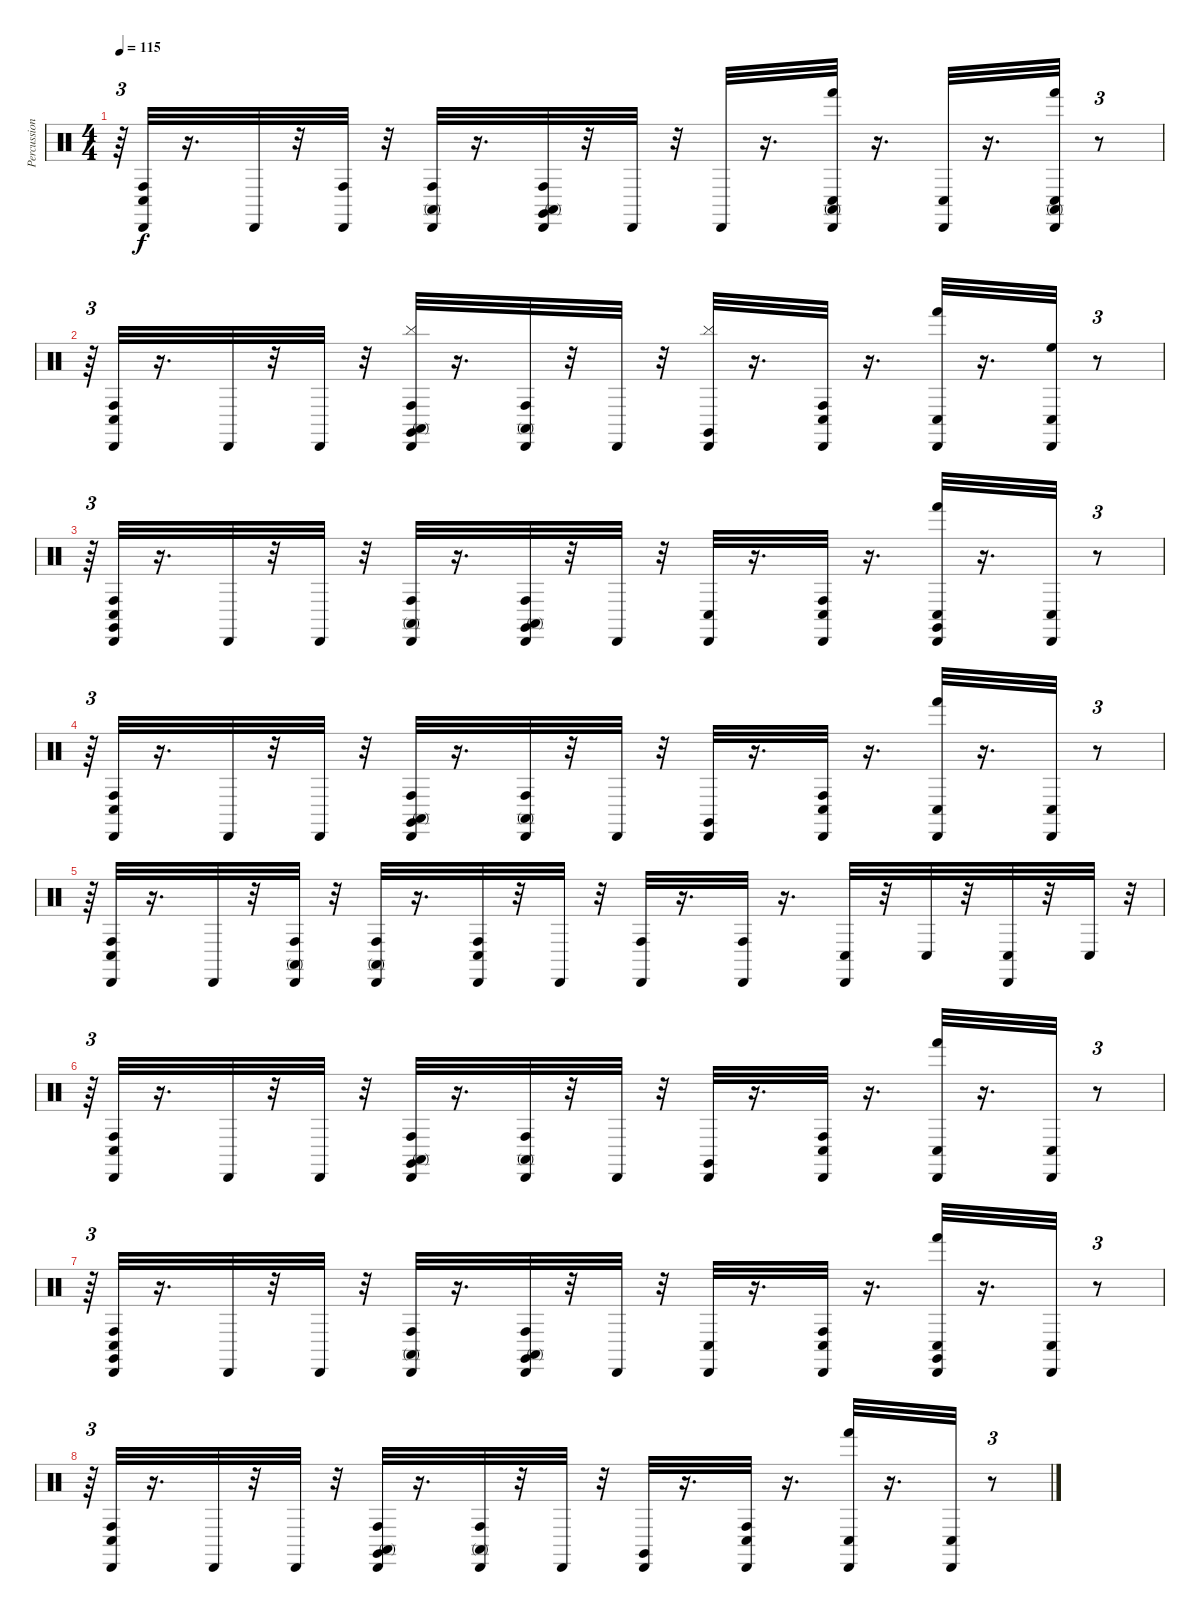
\track ("Percussion" "Percussion") {instrument percussion}
\staff {score}
\articulation defaults
\ts (4 4)
\tempo 115
\clef neutral
\ks c
r.64{tu (3 2) dy f} ("Cabasa (hit)" "Conga low (hit)" "Conga high (hit)").32 r.16{d} "Cabasa (hit)".32 r.32 ("Conga high (hit)" "Cabasa (hit)").32 r.32 ("Conga high (hit)" "Conga high (mute)" "Cabasa (hit)").32 r.16{d} ("Conga high (mute)" "Conga high (hit)" "Cabasa (hit)" "Claves (hit)").32 r.32 "Cabasa (hit)".32 r.32 "Cabasa (hit)".32 r.16{d} ("Conga high (mute)" "Cabasa (hit)" "Hand (hit)" "Conga low (hit)").32 r.16{d} ("Cabasa (hit)" "Conga low (hit)").32 r.16{d} ("Conga high (mute)" "Cabasa (hit)" "Hand (hit)" "Conga low (hit)").32 r.8{tu (3 2)} |
r.64{tu (3 2)} ("Conga low (hit)" "Conga high (hit)" "Cabasa (hit)").32 r.16{d} "Cabasa (hit)".32 r.32 "Cabasa (hit)".32 r.32 ("Conga high (hit)" "Conga high (mute)" "Claves (hit)" "Cymbal (hit)" "Cabasa (hit)").32 r.16{d} ("Cabasa (hit)" "Conga high (hit)" "Conga high (mute)").32 r.32 "Cabasa (hit)".32 r.32 ("Cymbal (hit)" "Cabasa (hit)" "Claves (hit)").32 r.16{d} ("Conga high (hit)" "Cabasa (hit)" "Conga low (hit)").32 r.16{d} ("Conga low (hit)" "Cabasa (hit)" "Hand (hit)").32 r.16{d} ("Cabasa (hit)" "Conga low (hit)" "High Floor Tom (hit)").32 r.8{tu (3 2)} |
r.64{tu (3 2)} ("Claves (hit)" "Conga low (hit)" "Cabasa (hit)" "Conga high (hit)").32 r.16{d} "Cabasa (hit)".32 r.32 "Cabasa (hit)".32 r.32 ("Conga high (hit)" "Cabasa (hit)" "Conga high (mute)").32 r.16{d} ("Conga high (hit)" "Cabasa (hit)" "Conga high (mute)" "Claves (hit)").32 r.32 "Cabasa (hit)".32 r.32 ("Cabasa (hit)" "Conga low (hit)").32 r.16{d} ("Conga low (hit)" "Cabasa (hit)" "Conga high (hit)").32 r.16{d} ("Hand (hit)" "Conga low (hit)" "Cabasa (hit)" "Claves (hit)").32 r.16{d} ("Cabasa (hit)" "Conga low (hit)").32 r.8{tu (3 2)} |
r.64{tu (3 2)} ("Cabasa (hit)" "Conga high (hit)" "Conga low (hit)").32 r.16{d} "Cabasa (hit)".32 r.32 "Cabasa (hit)".32 r.32 ("Cabasa (hit)" "Claves (hit)" "Conga high (mute)" "Conga high (hit)").32 r.16{d} ("Conga high (mute)" "Cabasa (hit)" "Conga high (hit)").32 r.32 "Cabasa (hit)".32 r.32 ("Cabasa (hit)" "Claves (hit)").32 r.16{d} ("Conga high (hit)" "Cabasa (hit)" "Conga low (hit)").32 r.16{d} ("Conga low (hit)" "Hand (hit)" "Cabasa (hit)").32 r.16{d} ("Conga low (hit)" "Cabasa (hit)").32 r.8{tu (3 2)} |
r.64{tu (3 2)} ("Conga low (hit)" "Conga high (hit)" "Cabasa (hit)").32 r.16{d} "Cabasa (hit)".32 r.32 ("Conga high (hit)" "Cabasa (hit)" "Conga high (mute)").32 r.32 ("Conga high (hit)" "Conga high (mute)" "Cabasa (hit)").32 r.16{d} ("Conga low (hit)" "Conga high (hit)" "Cabasa (hit)").32 r.32 "Cabasa (hit)".32 r.32 ("Cabasa (hit)" "Conga high (hit)").32 r.16{d} ("Conga high (hit)" "Cabasa (hit)").32 r.16{d} ("Conga low (hit)" "Cabasa (hit)").32 r.32 "Conga low (hit)".32 r.32 ("Cabasa (hit)" "Conga low (hit)").32 r.32 "Conga low (hit)".32 r.32{tu (3 2)} |
r.64{tu (3 2)} ("Conga high (hit)" "Conga low (hit)" "Cabasa (hit)").32 r.16{d} "Cabasa (hit)".32 r.32 "Cabasa (hit)".32 r.32 ("Claves (hit)" "Conga high (mute)" "Conga high (hit)" "Cabasa (hit)").32 r.16{d} ("Cabasa (hit)" "Conga high (hit)" "Conga high (mute)").32 r.32 "Cabasa (hit)".32 r.32 ("Cabasa (hit)" "Claves (hit)").32 r.16{d} ("Cabasa (hit)" "Conga high (hit)" "Conga low (hit)").32 r.16{d} ("Conga low (hit)" "Cabasa (hit)" "Hand (hit)").32 r.16{d} ("Conga low (hit)" "Cabasa (hit)").32 r.8{tu (3 2)} |
r.64{tu (3 2)} ("Cabasa (hit)" "Conga low (hit)" "Claves (hit)" "Conga high (hit)").32 r.16{d} "Cabasa (hit)".32 r.32 "Cabasa (hit)".32 r.32 ("Cabasa (hit)" "Conga high (hit)" "Conga high (mute)").32 r.16{d} ("Conga high (hit)" "Cabasa (hit)" "Claves (hit)" "Conga high (mute)").32 r.32 "Cabasa (hit)".32 r.32 ("Conga low (hit)" "Cabasa (hit)").32 r.16{d} ("Cabasa (hit)" "Conga low (hit)" "Conga high (hit)").32 r.16{d} ("Hand (hit)" "Cabasa (hit)" "Claves (hit)" "Conga low (hit)").32 r.16{d} ("Conga low (hit)" "Cabasa (hit)").32 r.8{tu (3 2)} |
r.64{tu (3 2)} ("Conga low (hit)" "Conga high (hit)" "Cabasa (hit)").32 r.16{d} "Cabasa (hit)".32 r.32 "Cabasa (hit)".32 r.32 ("Claves (hit)" "Cabasa (hit)" "Conga high (hit)" "Conga high (mute)").32 r.16{d} ("Conga high (hit)" "Cabasa (hit)" "Conga high (mute)").32 r.32 "Cabasa (hit)".32 r.32 ("Claves (hit)" "Cabasa (hit)").32 r.16{d} ("Conga low (hit)" "Cabasa (hit)" "Conga high (hit)").32 r.16{d} ("Cabasa (hit)" "Conga low (hit)" "Hand (hit)").32 r.16{d} ("Conga low (hit)" "Cabasa (hit)").32 r.8{tu (3 2)}
